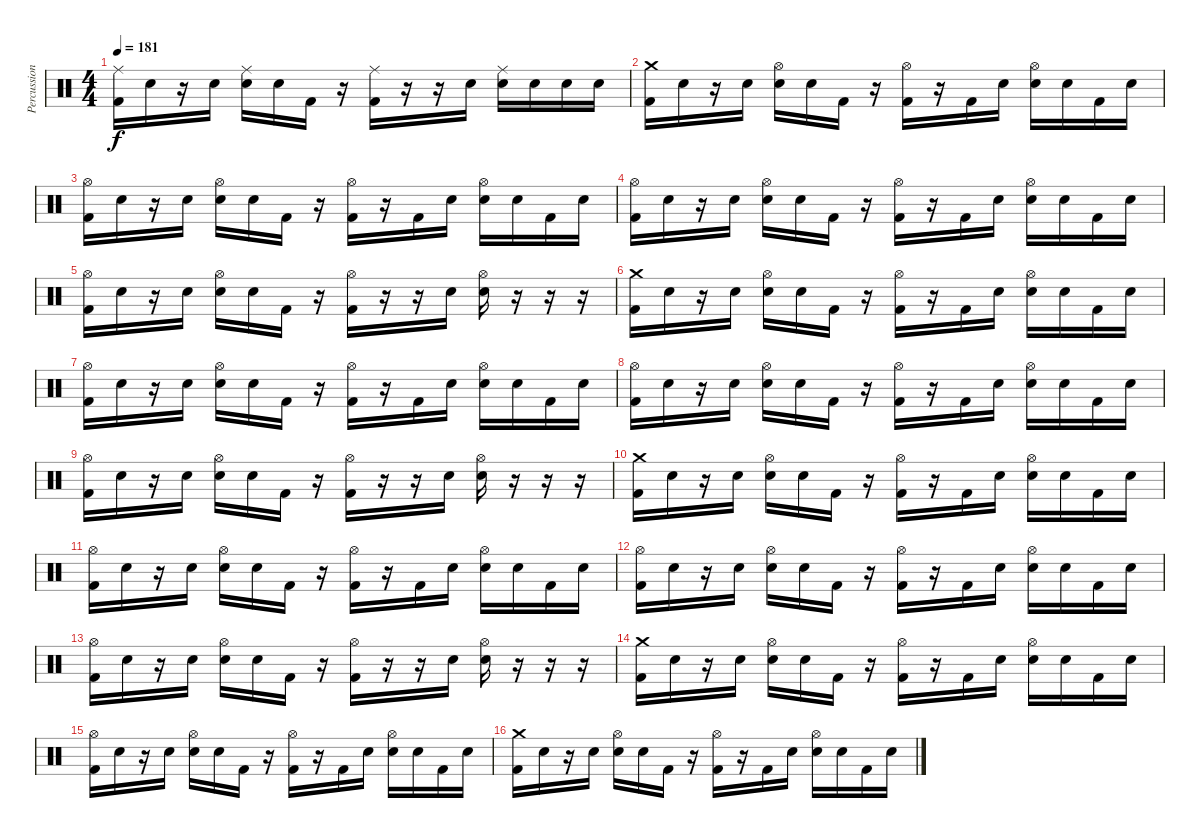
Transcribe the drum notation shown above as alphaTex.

\track ("Percussion" "Percussion") {instrument percussion}
\staff {score}
\articulation defaults
\ts (4 4)
\tempo 181
\clef neutral
\ks c
("Kick (hit) 2" "Ride (middle)").16{dy f} "Snare (hit)"{x}.16 r.16 "Snare (hit)"{x}.16 ("Electric Snare (hit)" "Ride (middle)").16 "Snare (hit)"{x}.16 "Kick (hit) 2".16 r.16 ("Kick (hit) 2" "Ride (middle)").16 r.16 r.16 "Snare (hit)"{x}.16 ("Electric Snare (hit)" "Ride (middle)").16 "Electric Snare (hit)".16 "Electric Snare (hit)".16 "Electric Snare (hit)".16 |
("Kick (hit) 2" "Crash medium (hit)").16 "Snare (hit)"{x}.16 r.16 "Snare (hit)"{x}.16 ("Electric Snare (hit)" "Hi-Hat (open)").16 "Snare (hit)"{x}.16 "Kick (hit) 2".16 r.16 ("Kick (hit) 2" "Hi-Hat (open)").16 r.16 "Kick (hit) 2".16 "Snare (hit)"{x}.16 ("Electric Snare (hit)" "Hi-Hat (open)").16 "Snare (hit)"{x}.16 "Kick (hit) 2".16 "Snare (hit)"{x}.16 |
("Kick (hit) 2" "Hi-Hat (open)").16 "Snare (hit)"{x}.16 r.16 "Snare (hit)"{x}.16 ("Electric Snare (hit)" "Hi-Hat (open)").16 "Snare (hit)"{x}.16 "Kick (hit) 2".16 r.16 ("Kick (hit) 2" "Hi-Hat (open)").16 r.16 "Kick (hit) 2".16 "Snare (hit)"{x}.16 ("Electric Snare (hit)" "Hi-Hat (open)").16 "Snare (hit)"{x}.16 "Kick (hit) 2".16 "Snare (hit)"{x}.16 |
("Kick (hit) 2" "Hi-Hat (open)").16 "Snare (hit)"{x}.16 r.16 "Snare (hit)"{x}.16 ("Electric Snare (hit)" "Hi-Hat (open)").16 "Snare (hit)"{x}.16 "Kick (hit) 2".16 r.16 ("Kick (hit) 2" "Hi-Hat (open)").16 r.16 "Kick (hit) 2".16 "Snare (hit)"{x}.16 ("Electric Snare (hit)" "Hi-Hat (open)").16 "Snare (hit)"{x}.16 "Kick (hit) 2".16 "Snare (hit)"{x}.16 |
("Kick (hit) 2" "Hi-Hat (open)").16 "Snare (hit)"{x}.16 r.16 "Snare (hit)"{x}.16 ("Electric Snare (hit)" "Hi-Hat (open)").16 "Snare (hit)"{x}.16 "Kick (hit) 2".16 r.16 ("Kick (hit) 2" "Hi-Hat (open)").16 r.16 r.16 "Snare (hit)"{x}.16 ("Electric Snare (hit)" "Hi-Hat (open)").16 r.16 r.16 r.16 |
("Kick (hit) 2" "Crash medium (hit)").16 "Snare (hit)"{x}.16 r.16 "Snare (hit)"{x}.16 ("Electric Snare (hit)" "Hi-Hat (open)").16 "Snare (hit)"{x}.16 "Kick (hit) 2".16 r.16 ("Kick (hit) 2" "Hi-Hat (open)").16 r.16 "Kick (hit) 2".16 "Snare (hit)"{x}.16 ("Electric Snare (hit)" "Hi-Hat (open)").16 "Snare (hit)"{x}.16 "Kick (hit) 2".16 "Snare (hit)"{x}.16 |
("Kick (hit) 2" "Hi-Hat (open)").16 "Snare (hit)"{x}.16 r.16 "Snare (hit)"{x}.16 ("Electric Snare (hit)" "Hi-Hat (open)").16 "Snare (hit)"{x}.16 "Kick (hit) 2".16 r.16 ("Kick (hit) 2" "Hi-Hat (open)").16 r.16 "Kick (hit) 2".16 "Snare (hit)"{x}.16 ("Electric Snare (hit)" "Hi-Hat (open)").16 "Snare (hit)"{x}.16 "Kick (hit) 2".16 "Snare (hit)"{x}.16 |
("Kick (hit) 2" "Hi-Hat (open)").16 "Snare (hit)"{x}.16 r.16 "Snare (hit)"{x}.16 ("Electric Snare (hit)" "Hi-Hat (open)").16 "Snare (hit)"{x}.16 "Kick (hit) 2".16 r.16 ("Kick (hit) 2" "Hi-Hat (open)").16 r.16 "Kick (hit) 2".16 "Snare (hit)"{x}.16 ("Electric Snare (hit)" "Hi-Hat (open)").16 "Snare (hit)"{x}.16 "Kick (hit) 2".16 "Snare (hit)"{x}.16 |
("Kick (hit) 2" "Hi-Hat (open)").16 "Snare (hit)"{x}.16 r.16 "Snare (hit)"{x}.16 ("Electric Snare (hit)" "Hi-Hat (open)").16 "Snare (hit)"{x}.16 "Kick (hit) 2".16 r.16 ("Kick (hit) 2" "Hi-Hat (open)").16 r.16 r.16 "Snare (hit)"{x}.16 ("Electric Snare (hit)" "Hi-Hat (open)").16 r.16 r.16 r.16 |
("Kick (hit) 2" "Crash medium (hit)").16 "Snare (hit)"{x}.16 r.16 "Snare (hit)"{x}.16 ("Electric Snare (hit)" "Hi-Hat (open)").16 "Snare (hit)"{x}.16 "Kick (hit) 2".16 r.16 ("Kick (hit) 2" "Hi-Hat (open)").16 r.16 "Kick (hit) 2".16 "Snare (hit)"{x}.16 ("Electric Snare (hit)" "Hi-Hat (open)").16 "Snare (hit)"{x}.16 "Kick (hit) 2".16 "Snare (hit)"{x}.16 |
("Kick (hit) 2" "Hi-Hat (open)").16 "Snare (hit)"{x}.16 r.16 "Snare (hit)"{x}.16 ("Electric Snare (hit)" "Hi-Hat (open)").16 "Snare (hit)"{x}.16 "Kick (hit) 2".16 r.16 ("Kick (hit) 2" "Hi-Hat (open)").16 r.16 "Kick (hit) 2".16 "Snare (hit)"{x}.16 ("Electric Snare (hit)" "Hi-Hat (open)").16 "Snare (hit)"{x}.16 "Kick (hit) 2".16 "Snare (hit)"{x}.16 |
("Kick (hit) 2" "Hi-Hat (open)").16 "Snare (hit)"{x}.16 r.16 "Snare (hit)"{x}.16 ("Electric Snare (hit)" "Hi-Hat (open)").16 "Snare (hit)"{x}.16 "Kick (hit) 2".16 r.16 ("Kick (hit) 2" "Hi-Hat (open)").16 r.16 "Kick (hit) 2".16 "Snare (hit)"{x}.16 ("Electric Snare (hit)" "Hi-Hat (open)").16 "Snare (hit)"{x}.16 "Kick (hit) 2".16 "Snare (hit)"{x}.16 |
("Kick (hit) 2" "Hi-Hat (open)").16 "Snare (hit)"{x}.16 r.16 "Snare (hit)"{x}.16 ("Electric Snare (hit)" "Hi-Hat (open)").16 "Snare (hit)"{x}.16 "Kick (hit) 2".16 r.16 ("Kick (hit) 2" "Hi-Hat (open)").16 r.16 r.16 "Snare (hit)"{x}.16 ("Electric Snare (hit)" "Hi-Hat (open)").16 r.16 r.16 r.16 |
("Kick (hit) 2" "Crash medium (hit)").16 "Snare (hit)"{x}.16 r.16 "Snare (hit)"{x}.16 ("Electric Snare (hit)" "Hi-Hat (open)").16 "Snare (hit)"{x}.16 "Kick (hit) 2".16 r.16 ("Kick (hit) 2" "Hi-Hat (open)").16 r.16 "Kick (hit) 2".16 "Snare (hit)"{x}.16 ("Electric Snare (hit)" "Hi-Hat (open)").16 "Snare (hit)"{x}.16 "Kick (hit) 2".16 "Snare (hit)"{x}.16 |
("Kick (hit) 2" "Hi-Hat (open)").16 "Snare (hit)"{x}.16 r.16 "Snare (hit)"{x}.16 ("Electric Snare (hit)" "Hi-Hat (open)").16 "Snare (hit)"{x}.16 "Kick (hit) 2".16 r.16 ("Kick (hit) 2" "Hi-Hat (open)").16 r.16 "Kick (hit) 2".16 "Snare (hit)"{x}.16 ("Electric Snare (hit)" "Hi-Hat (open)").16 "Snare (hit)"{x}.16 "Kick (hit) 2".16 "Snare (hit)"{x}.16 |
("Kick (hit) 2" "Crash medium (hit)").16 "Snare (hit)"{x}.16 r.16 "Snare (hit)"{x}.16 ("Electric Snare (hit)" "Hi-Hat (open)").16 "Snare (hit)"{x}.16 "Kick (hit) 2".16 r.16 ("Kick (hit) 2" "Hi-Hat (open)").16 r.16 "Kick (hit) 2".16 "Snare (hit)"{x}.16 ("Electric Snare (hit)" "Hi-Hat (open)").16 "Snare (hit)"{x}.16 "Kick (hit) 2".16 "Snare (hit)"{x}.16
